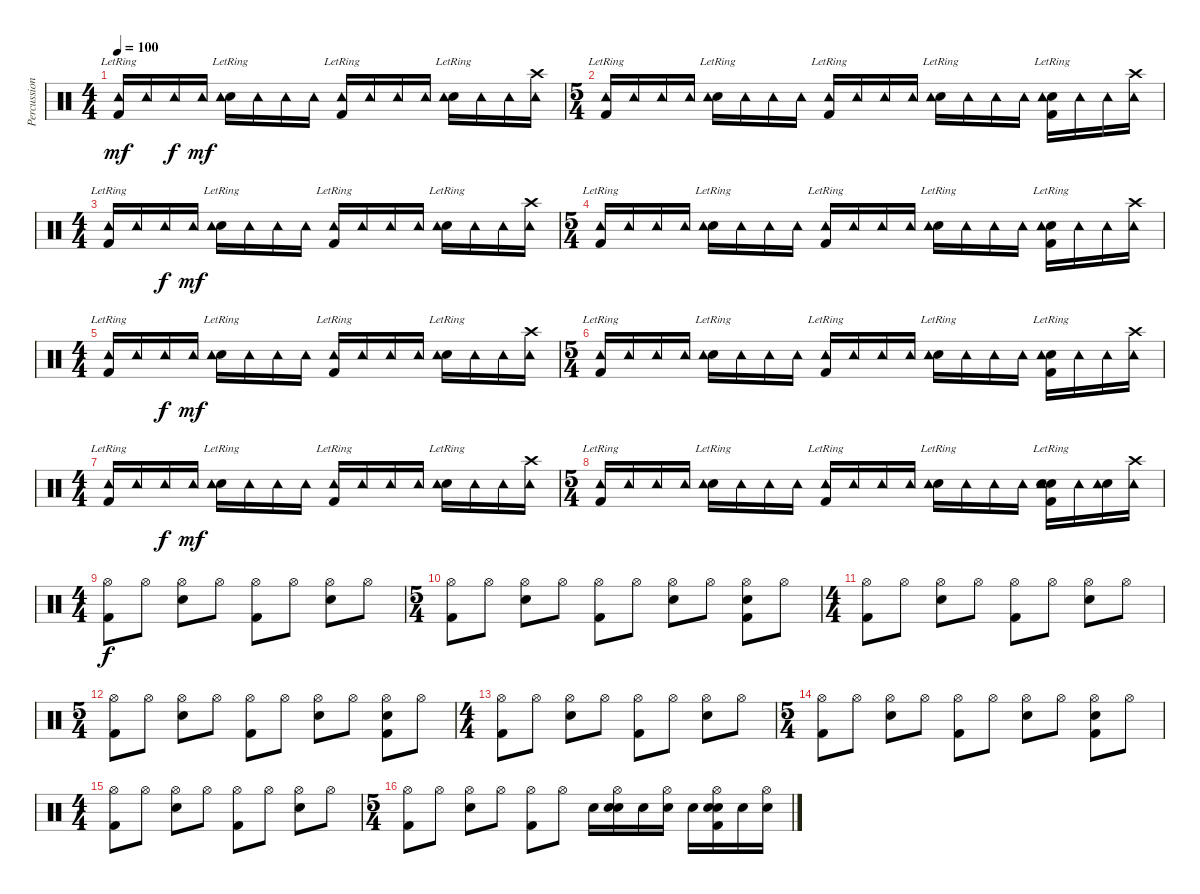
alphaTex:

\track ("Percussion" "Percussion") {instrument percussion}
\staff {score}
\articulation defaults
\ts (4 4)
\tempo 100
\clef neutral
\ks c
("Kick (hit) 2"{lr} "Tambourine (hit)").16{dy mf} "Tambourine (hit)".16 "Tambourine (hit)".16{dy f} "Tambourine (hit)".16{dy mf} ("Snare (hit) 2"{lr} "Tambourine (hit)").16 "Tambourine (hit)".16 "Tambourine (hit)".16 "Tambourine (hit)".16 ("Kick (hit) 2"{lr} "Tambourine (hit)").16 "Tambourine (hit)".16 "Tambourine (hit)".16 "Tambourine (hit)".16 ("Snare (hit) 2"{lr} "Tambourine (hit)").16 "Tambourine (hit)".16 "Tambourine (hit)".16 ("Crash high (hit)" "Tambourine (hit)").16 |
\ts (5 4)
("Kick (hit) 2"{lr} "Tambourine (hit)").16 "Tambourine (hit)".16 "Tambourine (hit)".16 "Tambourine (hit)".16 ("Snare (hit) 2"{lr} "Tambourine (hit)").16 "Tambourine (hit)".16 "Tambourine (hit)".16 "Tambourine (hit)".16 ("Kick (hit) 2"{lr} "Tambourine (hit)").16 "Tambourine (hit)".16 "Tambourine (hit)".16 "Tambourine (hit)".16 ("Snare (hit) 2"{lr} "Tambourine (hit)").16 "Tambourine (hit)".16 "Tambourine (hit)".16 "Tambourine (hit)".16 ("Kick (hit) 2"{lr} "Snare (hit) 2"{lr} "Tambourine (hit)").16 "Tambourine (hit)".16 "Tambourine (hit)".16 ("Crash high (hit)" "Tambourine (hit)").16 |
\ts (4 4)
("Kick (hit) 2"{lr} "Tambourine (hit)").16 "Tambourine (hit)".16 "Tambourine (hit)".16{dy f} "Tambourine (hit)".16{dy mf} ("Snare (hit) 2"{lr} "Tambourine (hit)").16 "Tambourine (hit)".16 "Tambourine (hit)".16 "Tambourine (hit)".16 ("Kick (hit) 2"{lr} "Tambourine (hit)").16 "Tambourine (hit)".16 "Tambourine (hit)".16 "Tambourine (hit)".16 ("Snare (hit) 2"{lr} "Tambourine (hit)").16 "Tambourine (hit)".16 "Tambourine (hit)".16 ("Crash high (hit)" "Tambourine (hit)").16 |
\ts (5 4)
("Kick (hit) 2"{lr} "Tambourine (hit)").16 "Tambourine (hit)".16 "Tambourine (hit)".16 "Tambourine (hit)".16 ("Snare (hit) 2"{lr} "Tambourine (hit)").16 "Tambourine (hit)".16 "Tambourine (hit)".16 "Tambourine (hit)".16 ("Kick (hit) 2"{lr} "Tambourine (hit)").16 "Tambourine (hit)".16 "Tambourine (hit)".16 "Tambourine (hit)".16 ("Snare (hit) 2"{lr} "Tambourine (hit)").16 "Tambourine (hit)".16 "Tambourine (hit)".16 "Tambourine (hit)".16 ("Kick (hit) 2"{lr} "Snare (hit) 2"{lr} "Tambourine (hit)").16 "Tambourine (hit)".16 "Tambourine (hit)".16 ("Crash high (hit)" "Tambourine (hit)").16 |
\ts (4 4)
("Kick (hit) 2"{lr} "Tambourine (hit)").16 "Tambourine (hit)".16 "Tambourine (hit)".16{dy f} "Tambourine (hit)".16{dy mf} ("Snare (hit) 2"{lr} "Tambourine (hit)").16 "Tambourine (hit)".16 "Tambourine (hit)".16 "Tambourine (hit)".16 ("Kick (hit) 2"{lr} "Tambourine (hit)").16 "Tambourine (hit)".16 "Tambourine (hit)".16 "Tambourine (hit)".16 ("Snare (hit) 2"{lr} "Tambourine (hit)").16 "Tambourine (hit)".16 "Tambourine (hit)".16 ("Crash high (hit)" "Tambourine (hit)").16 |
\ts (5 4)
("Kick (hit) 2"{lr} "Tambourine (hit)").16 "Tambourine (hit)".16 "Tambourine (hit)".16 "Tambourine (hit)".16 ("Snare (hit) 2"{lr} "Tambourine (hit)").16 "Tambourine (hit)".16 "Tambourine (hit)".16 "Tambourine (hit)".16 ("Kick (hit) 2"{lr} "Tambourine (hit)").16 "Tambourine (hit)".16 "Tambourine (hit)".16 "Tambourine (hit)".16 ("Snare (hit) 2"{lr} "Tambourine (hit)").16 "Tambourine (hit)".16 "Tambourine (hit)".16 "Tambourine (hit)".16 ("Kick (hit) 2"{lr} "Snare (hit) 2"{lr} "Tambourine (hit)").16 "Tambourine (hit)".16 "Tambourine (hit)".16 ("Crash high (hit)" "Tambourine (hit)").16 |
\ts (4 4)
("Kick (hit) 2"{lr} "Tambourine (hit)").16 "Tambourine (hit)".16 "Tambourine (hit)".16{dy f} "Tambourine (hit)".16{dy mf} ("Snare (hit) 2"{lr} "Tambourine (hit)").16 "Tambourine (hit)".16 "Tambourine (hit)".16 "Tambourine (hit)".16 ("Kick (hit) 2"{lr} "Tambourine (hit)").16 "Tambourine (hit)".16 "Tambourine (hit)".16 "Tambourine (hit)".16 ("Snare (hit) 2"{lr} "Tambourine (hit)").16 "Tambourine (hit)".16 "Tambourine (hit)".16 ("Crash high (hit)" "Tambourine (hit)").16 |
\ts (5 4)
("Kick (hit) 2"{lr} "Tambourine (hit)").16 "Tambourine (hit)".16 "Tambourine (hit)".16 "Tambourine (hit)".16 ("Snare (hit) 2"{lr} "Tambourine (hit)").16 "Tambourine (hit)".16 "Tambourine (hit)".16 "Tambourine (hit)".16 ("Kick (hit) 2"{lr} "Tambourine (hit)").16 "Tambourine (hit)".16 "Tambourine (hit)".16 "Tambourine (hit)".16 ("Snare (hit) 2"{lr} "Tambourine (hit)").16 "Tambourine (hit)".16 "Tambourine (hit)".16 "Tambourine (hit)".16 ("Kick (hit) 2"{lr} "Snare (hit) 2"{lr} "Electric Snare (hit)" "Tambourine (hit)").16 "Tambourine (hit)".16 ("Electric Snare (hit)" "Tambourine (hit)").16 ("Crash high (hit)" "Tambourine (hit)").16 |
\ts (4 4)
("Kick (hit) 2" "Hi-Hat (open)").8{dy f} "Hi-Hat (open)".8 ("Snare (hit) 2" "Hi-Hat (open)").8 "Hi-Hat (open)".8 ("Kick (hit) 2" "Hi-Hat (open)").8 "Hi-Hat (open)".8 ("Snare (hit) 2" "Hi-Hat (open)").8 "Hi-Hat (open)".8 |
\ts (5 4)
("Kick (hit) 2" "Hi-Hat (open)").8 "Hi-Hat (open)".8 ("Snare (hit) 2" "Hi-Hat (open)").8 "Hi-Hat (open)".8 ("Kick (hit) 2" "Hi-Hat (open)").8 "Hi-Hat (open)".8 ("Snare (hit) 2" "Hi-Hat (open)").8 "Hi-Hat (open)".8 ("Kick (hit) 2" "Snare (hit) 2" "Hi-Hat (open)").8 "Hi-Hat (open)".8 |
\ts (4 4)
("Kick (hit) 2" "Hi-Hat (open)").8 "Hi-Hat (open)".8 ("Snare (hit) 2" "Hi-Hat (open)").8 "Hi-Hat (open)".8 ("Kick (hit) 2" "Hi-Hat (open)").8 "Hi-Hat (open)".8 ("Snare (hit) 2" "Hi-Hat (open)").8 "Hi-Hat (open)".8 |
\ts (5 4)
("Kick (hit) 2" "Hi-Hat (open)").8 "Hi-Hat (open)".8 ("Snare (hit) 2" "Hi-Hat (open)").8 "Hi-Hat (open)".8 ("Kick (hit) 2" "Hi-Hat (open)").8 "Hi-Hat (open)".8 ("Snare (hit) 2" "Hi-Hat (open)").8 "Hi-Hat (open)".8 ("Kick (hit) 2" "Snare (hit) 2" "Hi-Hat (open)").8 "Hi-Hat (open)".8 |
\ts (4 4)
("Kick (hit) 2" "Hi-Hat (open)").8 "Hi-Hat (open)".8 ("Snare (hit) 2" "Hi-Hat (open)").8 "Hi-Hat (open)".8 ("Kick (hit) 2" "Hi-Hat (open)").8 "Hi-Hat (open)".8 ("Snare (hit) 2" "Hi-Hat (open)").8 "Hi-Hat (open)".8 |
\ts (5 4)
("Kick (hit) 2" "Hi-Hat (open)").8 "Hi-Hat (open)".8 ("Snare (hit) 2" "Hi-Hat (open)").8 "Hi-Hat (open)".8 ("Kick (hit) 2" "Hi-Hat (open)").8 "Hi-Hat (open)".8 ("Snare (hit) 2" "Hi-Hat (open)").8 "Hi-Hat (open)".8 ("Kick (hit) 2" "Snare (hit) 2" "Hi-Hat (open)").8 "Hi-Hat (open)".8 |
\ts (4 4)
("Kick (hit) 2" "Hi-Hat (open)").8 "Hi-Hat (open)".8 ("Snare (hit) 2" "Hi-Hat (open)").8 "Hi-Hat (open)".8 ("Kick (hit) 2" "Hi-Hat (open)").8 "Hi-Hat (open)".8 ("Snare (hit) 2" "Hi-Hat (open)").8 "Hi-Hat (open)".8 |
\ts (5 4)
("Kick (hit) 2" "Hi-Hat (open)").8 "Hi-Hat (open)".8 ("Snare (hit) 2" "Hi-Hat (open)").8 "Hi-Hat (open)".8 ("Kick (hit) 2" "Hi-Hat (open)").8 "Hi-Hat (open)".8 "Electric Snare (hit)".16 ("Snare (hit) 2" "Hi-Hat (open)" "Electric Snare (hit)").16 "Electric Snare (hit)".16 ("Hi-Hat (open)" "Electric Snare (hit)").16 "Electric Snare (hit)".16 ("Kick (hit) 2" "Snare (hit) 2" "Hi-Hat (open)" "Electric Snare (hit)").16 "Electric Snare (hit)".16 ("Hi-Hat (open)" "Electric Snare (hit)").16
